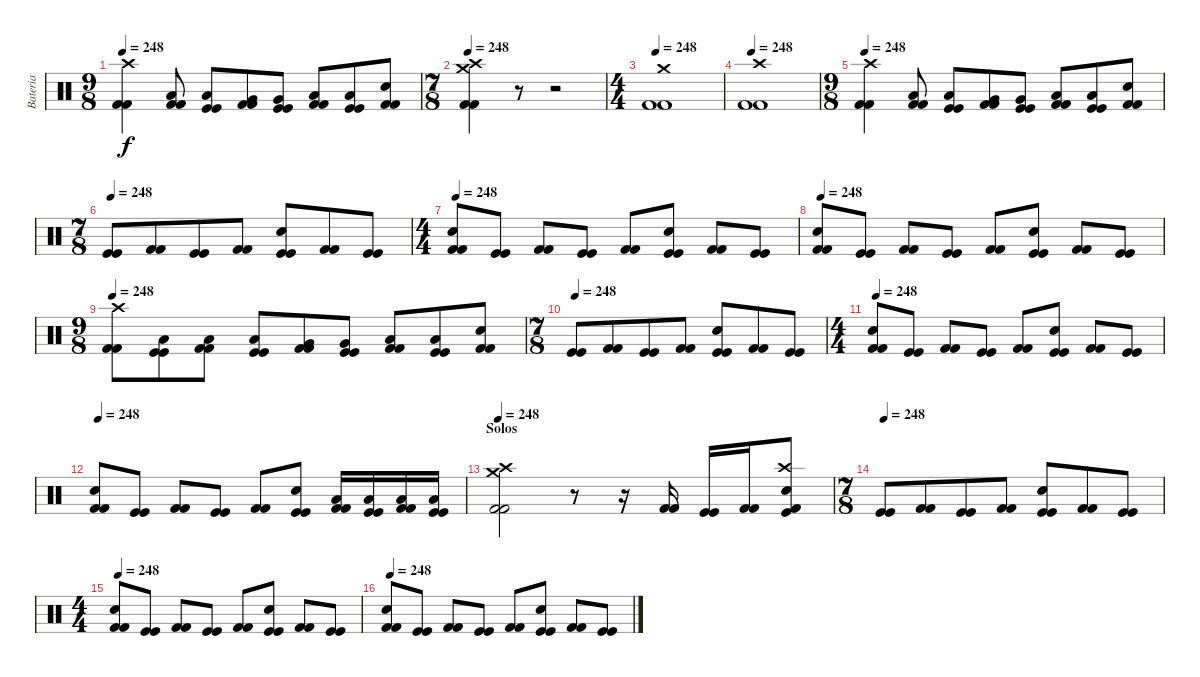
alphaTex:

\track ("Bateria" "Bateria") {instrument percussion}
\staff {score}
\articulation defaults
\ts (9 8)
\tempo 248
\clef neutral
\ks c
("Kick (hit) 2" "Kick (hit) 2" "Crash high (hit)").4{dy f} ("Kick (hit) 2" "Kick (hit) 2" "Low Floor Tom (hit)").8 ("Kick (hit)" "Kick (hit)" "Low Floor Tom (hit)").8 ("Kick (hit) 2" "Kick (hit) 2" "Very Low Tom (hit)").8 ("Kick (hit)" "Kick (hit)" "Very Low Tom (hit)").8 ("Kick (hit) 2" "Kick (hit) 2" "Low Tom (hit)").8 ("Kick (hit)" "Kick (hit)" "Low Tom (hit)").8 ("Kick (hit) 2" "Kick (hit) 2" "Snare (hit) 2").8 |
\ts (7 8)
\tempo 248
("Kick (hit) 2" "Kick (hit) 2" "Crash medium (hit)" "Crash high (hit)").4 r.8 r.2 |
\ts (4 4)
\tempo 248
("Kick (hit) 2" "Kick (hit) 2" "Crash medium (hit)").1 |
\tempo 248
("Kick (hit) 2" "Kick (hit) 2" "Crash high (hit)").1 |
\ts (9 8)
\tempo 248
("Kick (hit) 2" "Kick (hit) 2" "Crash high (hit)").4 ("Kick (hit) 2" "Kick (hit) 2" "Low Floor Tom (hit)").8 ("Kick (hit)" "Kick (hit)" "Low Floor Tom (hit)").8 ("Kick (hit) 2" "Kick (hit) 2" "Very Low Tom (hit)").8 ("Kick (hit)" "Kick (hit)" "Very Low Tom (hit)").8 ("Kick (hit) 2" "Kick (hit) 2" "Low Tom (hit)").8 ("Kick (hit)" "Kick (hit)" "Low Tom (hit)").8 ("Kick (hit) 2" "Kick (hit) 2" "Snare (hit) 2").8 |
\ts (7 8)
\tempo 248
("Kick (hit)" "Kick (hit)").8 ("Kick (hit) 2" "Kick (hit) 2").8 ("Kick (hit)" "Kick (hit)").8 ("Kick (hit) 2" "Kick (hit) 2").8 ("Kick (hit)" "Kick (hit)" "Snare (hit) 2").8 ("Kick (hit) 2" "Kick (hit) 2").8 ("Kick (hit)" "Kick (hit)").8 |
\ts (4 4)
\tempo 248
("Kick (hit) 2" "Kick (hit) 2" "Snare (hit) 2").8 ("Kick (hit)" "Kick (hit)").8 ("Kick (hit) 2" "Kick (hit) 2").8 ("Kick (hit)" "Kick (hit)").8 ("Kick (hit) 2" "Kick (hit) 2").8 ("Kick (hit)" "Kick (hit)" "Snare (hit) 2").8 ("Kick (hit) 2" "Kick (hit) 2").8 ("Kick (hit)" "Kick (hit)").8 |
\tempo 248
("Kick (hit) 2" "Kick (hit) 2" "Snare (hit) 2").8 ("Kick (hit)" "Kick (hit)").8 ("Kick (hit) 2" "Kick (hit) 2").8 ("Kick (hit)" "Kick (hit)").8 ("Kick (hit) 2" "Kick (hit) 2").8 ("Kick (hit)" "Kick (hit)" "Snare (hit) 2").8 ("Kick (hit) 2" "Kick (hit) 2").8 ("Kick (hit)" "Kick (hit)").8 |
\ts (9 8)
\tempo 248
("Kick (hit) 2" "Kick (hit) 2" "Crash high (hit)").8 ("Kick (hit)" "Kick (hit)" "Low Floor Tom (hit)").8 ("Kick (hit) 2" "Kick (hit) 2" "Low Floor Tom (hit)").8 ("Kick (hit)" "Kick (hit)" "Low Floor Tom (hit)").8 ("Kick (hit) 2" "Kick (hit) 2" "Very Low Tom (hit)").8 ("Kick (hit)" "Kick (hit)" "Very Low Tom (hit)").8 ("Kick (hit) 2" "Kick (hit) 2" "Low Tom (hit)").8 ("Kick (hit)" "Kick (hit)" "Low Tom (hit)").8 ("Kick (hit) 2" "Kick (hit) 2" "Snare (hit) 2").8 |
\ts (7 8)
\tempo 248
("Kick (hit)" "Kick (hit)").8 ("Kick (hit) 2" "Kick (hit) 2").8 ("Kick (hit)" "Kick (hit)").8 ("Kick (hit) 2" "Kick (hit) 2").8 ("Kick (hit)" "Kick (hit)" "Snare (hit) 2").8 ("Kick (hit) 2" "Kick (hit) 2").8 ("Kick (hit)" "Kick (hit)").8 |
\ts (4 4)
\tempo 248
("Kick (hit) 2" "Kick (hit) 2" "Snare (hit) 2").8 ("Kick (hit)" "Kick (hit)").8 ("Kick (hit) 2" "Kick (hit) 2").8 ("Kick (hit)" "Kick (hit)").8 ("Kick (hit) 2" "Kick (hit) 2").8 ("Kick (hit)" "Kick (hit)" "Snare (hit) 2").8 ("Kick (hit) 2" "Kick (hit) 2").8 ("Kick (hit)" "Kick (hit)").8 |
\tempo 248
("Kick (hit) 2" "Kick (hit) 2" "Snare (hit) 2").8 ("Kick (hit)" "Kick (hit)").8 ("Kick (hit) 2" "Kick (hit) 2").8 ("Kick (hit)" "Kick (hit)").8 ("Kick (hit) 2" "Kick (hit) 2").8 ("Kick (hit)" "Kick (hit)" "Snare (hit) 2").8 ("Kick (hit) 2" "Kick (hit) 2" "Low Tom (hit)").16 ("Kick (hit)" "Kick (hit)" "Low Tom (hit)").16 ("Kick (hit) 2" "Kick (hit) 2" "Low Tom (hit)").16 ("Kick (hit)" "Kick (hit)" "Low Tom (hit)").16 |
\section ("" "Solos")
\tempo 248
("Kick (hit) 2" "Kick (hit) 2" "Crash high (hit)" "Crash medium (hit)").2 r.8 r.16 ("Kick (hit) 2" "Kick (hit) 2").16 ("Kick (hit)" "Kick (hit)").16 ("Kick (hit) 2" "Kick (hit) 2").16 ("Kick (hit) 2" "Kick (hit)" "Snare (hit) 2" "Crash high (hit)").8 |
\ts (7 8)
\tempo 248
("Kick (hit)" "Kick (hit)").8 ("Kick (hit) 2" "Kick (hit) 2").8 ("Kick (hit)" "Kick (hit)").8 ("Kick (hit) 2" "Kick (hit) 2").8 ("Kick (hit)" "Kick (hit)" "Snare (hit) 2").8 ("Kick (hit) 2" "Kick (hit) 2").8 ("Kick (hit)" "Kick (hit)").8 |
\ts (4 4)
\tempo 248
("Kick (hit) 2" "Kick (hit) 2" "Snare (hit) 2").8 ("Kick (hit)" "Kick (hit)").8 ("Kick (hit) 2" "Kick (hit) 2").8 ("Kick (hit)" "Kick (hit)").8 ("Kick (hit) 2" "Kick (hit) 2").8 ("Kick (hit)" "Kick (hit)" "Snare (hit) 2").8 ("Kick (hit) 2" "Kick (hit) 2").8 ("Kick (hit)" "Kick (hit)").8 |
\tempo 248
("Kick (hit) 2" "Kick (hit) 2" "Snare (hit) 2").8 ("Kick (hit)" "Kick (hit)").8 ("Kick (hit) 2" "Kick (hit) 2").8 ("Kick (hit)" "Kick (hit)").8 ("Kick (hit) 2" "Kick (hit) 2").8 ("Kick (hit)" "Kick (hit)" "Snare (hit) 2").8 ("Kick (hit) 2" "Kick (hit) 2").8 ("Kick (hit)" "Kick (hit)").8
